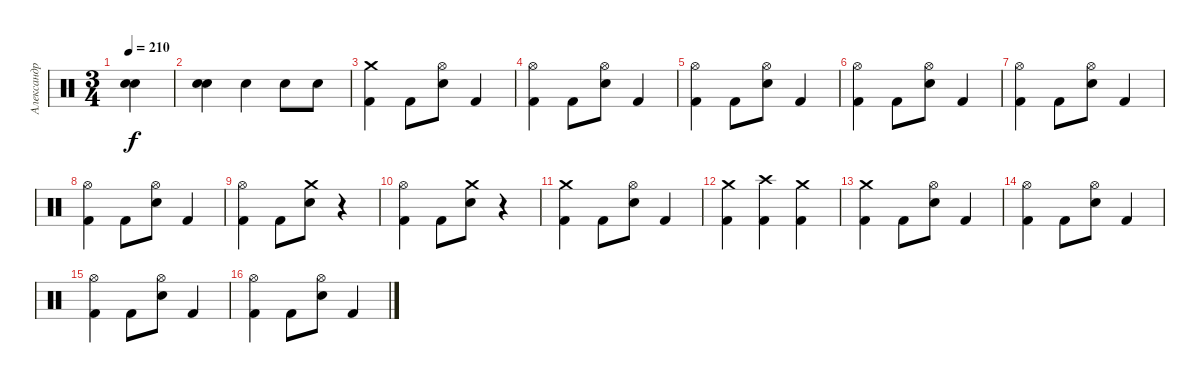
\track ("Александр Манякин" "Александр ") {instrument percussion}
\staff {score}
\articulation defaults
\ts (3 4)
\tempo 210
\clef neutral
\ks c
("Snare (hit) 2" "Snare (hit) 2").4{bd 240 dy f} |
("Snare (hit) 2" "Snare (hit) 2").4{bd 240} "Snare (hit) 2".4 "Snare (hit) 2".8 "Snare (hit) 2".8 |
("Crash medium (hit)" "Kick (hit) 2").4 "Kick (hit) 2".8 ("Hi-Hat (open)" "Snare (hit) 2").8 "Kick (hit) 2".4 |
("Hi-Hat (open)" "Kick (hit) 2").4 "Kick (hit) 2".8 ("Hi-Hat (open)" "Snare (hit) 2").8 "Kick (hit) 2".4 |
("Hi-Hat (open)" "Kick (hit) 2").4 "Kick (hit) 2".8 ("Hi-Hat (open)" "Snare (hit) 2").8 "Kick (hit) 2".4 |
("Hi-Hat (open)" "Kick (hit) 2").4 "Kick (hit) 2".8 ("Hi-Hat (open)" "Snare (hit) 2").8 "Kick (hit) 2".4 |
("Hi-Hat (open)" "Kick (hit) 2").4 "Kick (hit) 2".8 ("Hi-Hat (open)" "Snare (hit) 2").8 "Kick (hit) 2".4 |
("Hi-Hat (open)" "Kick (hit) 2").4 "Kick (hit) 2".8 ("Hi-Hat (open)" "Snare (hit) 2").8 "Kick (hit) 2".4 |
("Hi-Hat (open)" "Kick (hit) 2").4 "Kick (hit) 2".8 ("Crash medium (hit)" "Snare (hit) 2").8 r.4 |
("Hi-Hat (open)" "Kick (hit) 2").4 "Kick (hit) 2".8 ("Crash medium (hit)" "Snare (hit) 2").8 r.4 |
("Crash medium (hit)" "Kick (hit) 2").4 "Kick (hit) 2".8 ("Hi-Hat (open)" "Snare (hit) 2").8 "Kick (hit) 2".4 |
("Crash medium (hit)" "Kick (hit) 2").4 ("Crash high (hit)" "Kick (hit) 2").4 ("Crash medium (hit)" "Kick (hit) 2").4 |
("Crash medium (hit)" "Kick (hit) 2").4 "Kick (hit) 2".8 ("Hi-Hat (open)" "Snare (hit) 2").8 "Kick (hit) 2".4 |
("Hi-Hat (open)" "Kick (hit) 2").4 "Kick (hit) 2".8 ("Hi-Hat (open)" "Snare (hit) 2").8 "Kick (hit) 2".4 |
("Hi-Hat (open)" "Kick (hit) 2").4 "Kick (hit) 2".8 ("Hi-Hat (open)" "Snare (hit) 2").8 "Kick (hit) 2".4 |
("Hi-Hat (open)" "Kick (hit) 2").4 "Kick (hit) 2".8 ("Hi-Hat (open)" "Snare (hit) 2").8 "Kick (hit) 2".4
